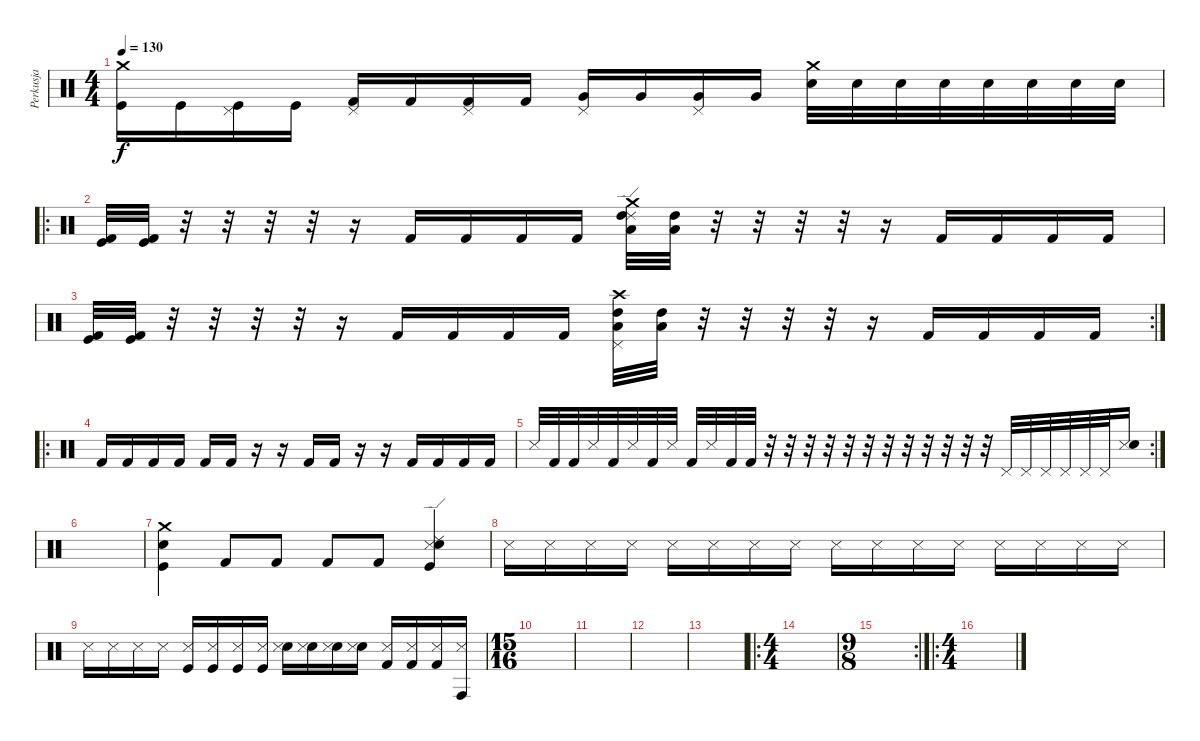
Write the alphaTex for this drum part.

\track ("Perkusja" "Perkusja") {instrument percussion}
\staff {score}
\articulation defaults
\ts (4 4)
\tempo 130
\clef neutral
\ks c
("Crash medium (hit)" "Kick (hit)").16{dy f} "Kick (hit)".16 ("Pedal Hi-Hat (hit)" "Kick (hit)").16 "Kick (hit)".16 ("Pedal Hi-Hat (hit)" "Kick (hit) 2").16 "Kick (hit) 2".16 ("Pedal Hi-Hat (hit)" "Kick (hit) 2").16 "Kick (hit) 2".16 ("Pedal Hi-Hat (hit)" "Very Low Tom (hit)").16 "Very Low Tom (hit)".16 ("Pedal Hi-Hat (hit)" "Very Low Tom (hit)").16 "Very Low Tom (hit)".16 ("Crash medium (hit)" "Electric Snare (hit)").32 "Electric Snare (hit)".32 "Electric Snare (hit)".32 "Electric Snare (hit)".32 "Electric Snare (hit)".32 "Electric Snare (hit)".32 "Electric Snare (hit)".32 "Electric Snare (hit)".32 |
\ro
("Kick (hit) 2" "Kick (hit)").32 ("Kick (hit)" "Kick (hit) 2").32 r.32 r.32 r.32 r.32 r.16 "Kick (hit) 2".16 "Kick (hit) 2".16 "Kick (hit) 2".16 "Kick (hit) 2".16 ("Crash medium (hit)" "Ride (edge) 2" "High Tom (hit)" "Low Tom (hit)").32 ("High Tom (hit)" "Low Tom (hit)").32 r.32 r.32 r.32 r.32 r.16 "Kick (hit) 2".16 "Kick (hit) 2".16 "Kick (hit) 2".16 "Kick (hit) 2".16 |
\rc 2
("Kick (hit) 2" "Kick (hit)").32 ("Kick (hit)" "Kick (hit) 2").32 r.32 r.32 r.32 r.32 r.16 "Kick (hit) 2".16 "Kick (hit) 2".16 "Kick (hit) 2".16 "Kick (hit) 2".16 ("Crash high (hit)" "Pedal Hi-Hat (hit)" "High Tom (hit)" "Low Tom (hit)").32 ("High Tom (hit)" "Low Tom (hit)").32 r.32 r.32 r.32 r.32 r.16 "Kick (hit) 2".16 "Kick (hit) 2".16 "Kick (hit) 2".16 "Kick (hit) 2".16 |
\ro "Kick (hit) 2".16 "Kick (hit) 2".16 "Kick (hit) 2".16 "Kick (hit) 2".16 "Kick (hit) 2".16 "Kick (hit) 2".16
r.16 r.16 "Kick (hit) 2".16 "Kick (hit) 2".16 r.16 r.16 "Kick (hit) 2".16 "Kick (hit) 2".16 "Kick (hit) 2".16 "Kick (hit) 2".16 |
\rc 2 "Metronome (hit)".32 "Kick (hit) 2".32 "Kick (hit) 2".32 "Metronome (hit)".32 "Kick (hit) 2".32 "Metronome (hit)".32 "Kick (hit) 2".32 "Metronome (hit)".32 "Kick (hit) 2".32 "Metronome (hit)".32 "Kick (hit) 2".32 "Kick (hit) 2".32
r.32 r.32 r.32 r.32 r.32 r.32 r.32 r.32 r.32 r.32 r.32 r.32 "Pedal Hi-Hat (hit)".32 "Pedal Hi-Hat (hit)".32 "Pedal Hi-Hat (hit)".32 "Pedal Hi-Hat (hit)".32 "Pedal Hi-Hat (hit)".32 "Pedal Hi-Hat (hit)".32 ("Metronome (hit)" "Electric Snare (hit)").16 |
|
("Crash medium (hit)" "Electric Snare (hit)" "Kick (hit)").4 "Kick (hit) 2".8 "Kick (hit) 2".8 "Kick (hit) 2".8 "Kick (hit) 2".8 ("Ride (edge) 2" "Metronome (hit)" "Electric Snare (hit)" "Kick (hit)").4 |
"Metronome (hit)".16 "Metronome (hit)".16 "Metronome (hit)".16 "Metronome (hit)".16 "Metronome (hit)".16 "Metronome (hit)".16 "Metronome (hit)".16 "Metronome (hit)".16 "Metronome (hit)".16 "Metronome (hit)".16 "Metronome (hit)".16 "Metronome (hit)".16 "Metronome (hit)".16 "Metronome (hit)".16 "Metronome (hit)".16 "Metronome (hit)".16 |
"Metronome (hit)".16 "Metronome (hit)".16 "Metronome (hit)".16 "Metronome (hit)".16 ("Kick (hit)" "Metronome (hit)").16 ("Kick (hit)" "Metronome (hit)").16 ("Kick (hit)" "Metronome (hit)").16 ("Kick (hit)" "Metronome (hit)").16 ("Electric Snare (hit)" "Metronome (hit)").16 ("Electric Snare (hit)" "Metronome (hit)").16 ("Electric Snare (hit)" "Metronome (hit)").16 ("Electric Snare (hit)" "Metronome (hit)").16 ("Kick (hit) 2" "Metronome (hit)").16 ("Kick (hit) 2" "Metronome (hit)").16 ("Kick (hit) 2" "Metronome (hit)").16 ("Conga high (hit)" "Metronome (hit)").16 |
\ts (15 16)
|
|
|
|
\ro
\ts (4 4)
|
\rc 2
\ts (9 8)
|
\ro
\ts (4 4)
